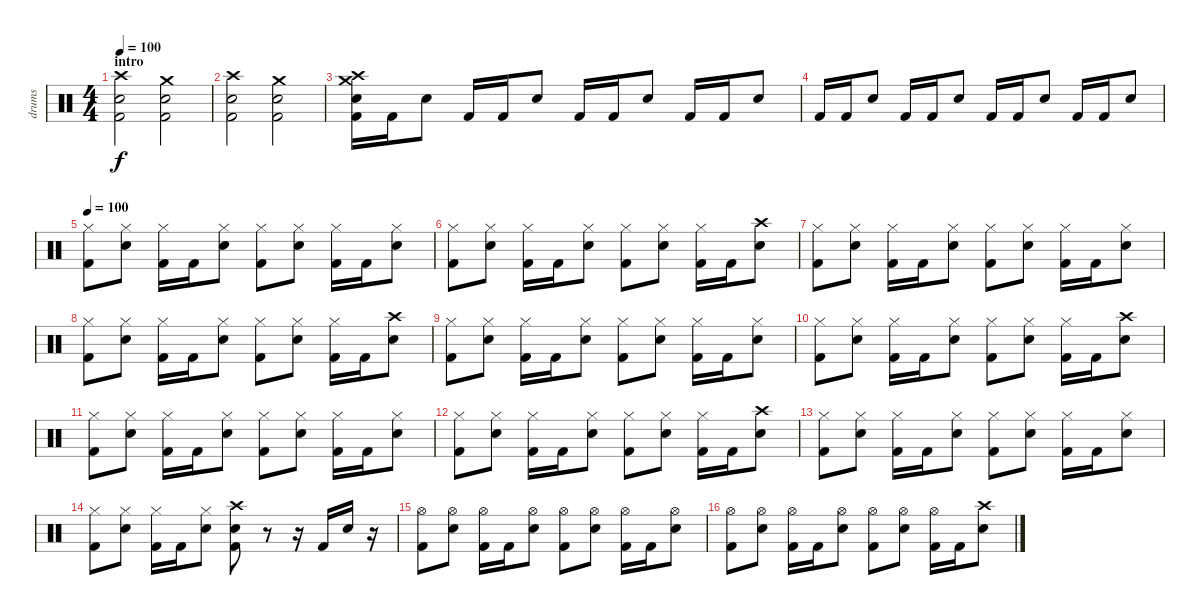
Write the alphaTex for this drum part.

\track ("drums" "drums") {instrument percussion}
\staff {score}
\articulation defaults
\ts (4 4)
\section ("" "intro")
\tempo 100
\tempo 120
\tempo 100
\clef neutral
\ks c
("Crash high (hit)" "Electric Snare (hit)" "Kick (hit) 2").2{dy f} ("Crash medium (hit)" "Electric Snare (hit)" "Kick (hit) 2").2 |
("Crash high (hit)" "Electric Snare (hit)" "Kick (hit) 2").2 ("Crash medium (hit)" "Electric Snare (hit)" "Kick (hit) 2").2 |
("Crash medium (hit)" "Crash high (hit)" "Electric Snare (hit)" "Kick (hit) 2").16 "Kick (hit) 2".16 "Electric Snare (hit)".8 "Kick (hit) 2".16 "Kick (hit) 2".16 "Electric Snare (hit)".8 "Kick (hit) 2".16 "Kick (hit) 2".16 "Electric Snare (hit)".8 "Kick (hit) 2".16 "Kick (hit) 2".16 "Electric Snare (hit)".8 |
"Kick (hit) 2".16 "Kick (hit) 2".16 "Electric Snare (hit)".8 "Kick (hit) 2".16 "Kick (hit) 2".16 "Electric Snare (hit)".8 "Kick (hit) 2".16 "Kick (hit) 2".16 "Electric Snare (hit)".8 "Kick (hit) 2".16 "Kick (hit) 2".16 "Electric Snare (hit)".8 |
\tempo 100
("Hi-Hat (closed)" "Kick (hit) 2").8 ("Hi-Hat (closed)" "Electric Snare (hit)").8 ("Hi-Hat (closed)" "Kick (hit) 2").16 "Kick (hit) 2".16 ("Hi-Hat (closed)" "Electric Snare (hit)").8 ("Hi-Hat (closed)" "Kick (hit) 2").8 ("Hi-Hat (closed)" "Electric Snare (hit)").8 ("Hi-Hat (closed)" "Kick (hit) 2").16 "Kick (hit) 2".16 ("Hi-Hat (closed)" "Electric Snare (hit)").8 |
("Hi-Hat (closed)" "Kick (hit) 2").8 ("Hi-Hat (closed)" "Electric Snare (hit)").8 ("Hi-Hat (closed)" "Kick (hit) 2").16 "Kick (hit) 2".16 ("Hi-Hat (closed)" "Electric Snare (hit)").8 ("Hi-Hat (closed)" "Kick (hit) 2").8 ("Hi-Hat (closed)" "Electric Snare (hit)").8 ("Hi-Hat (closed)" "Kick (hit) 2").16 "Kick (hit) 2".16 ("Crash high (hit)" "Electric Snare (hit)").8 |
("Hi-Hat (closed)" "Kick (hit) 2").8 ("Hi-Hat (closed)" "Electric Snare (hit)").8 ("Hi-Hat (closed)" "Kick (hit) 2").16 "Kick (hit) 2".16 ("Hi-Hat (closed)" "Electric Snare (hit)").8 ("Hi-Hat (closed)" "Kick (hit) 2").8 ("Hi-Hat (closed)" "Electric Snare (hit)").8 ("Hi-Hat (closed)" "Kick (hit) 2").16 "Kick (hit) 2".16 ("Hi-Hat (closed)" "Electric Snare (hit)").8 |
("Hi-Hat (closed)" "Kick (hit) 2").8 ("Hi-Hat (closed)" "Electric Snare (hit)").8 ("Hi-Hat (closed)" "Kick (hit) 2").16 "Kick (hit) 2".16 ("Hi-Hat (closed)" "Electric Snare (hit)").8 ("Hi-Hat (closed)" "Kick (hit) 2").8 ("Hi-Hat (closed)" "Electric Snare (hit)").8 ("Hi-Hat (closed)" "Kick (hit) 2").16 "Kick (hit) 2".16 ("Crash high (hit)" "Electric Snare (hit)").8 |
("Hi-Hat (closed)" "Kick (hit) 2").8 ("Hi-Hat (closed)" "Electric Snare (hit)").8 ("Hi-Hat (closed)" "Kick (hit) 2").16 "Kick (hit) 2".16 ("Hi-Hat (closed)" "Electric Snare (hit)").8 ("Hi-Hat (closed)" "Kick (hit) 2").8 ("Hi-Hat (closed)" "Electric Snare (hit)").8 ("Hi-Hat (closed)" "Kick (hit) 2").16 "Kick (hit) 2".16 ("Hi-Hat (closed)" "Electric Snare (hit)").8 |
("Hi-Hat (closed)" "Kick (hit) 2").8 ("Hi-Hat (closed)" "Electric Snare (hit)").8 ("Hi-Hat (closed)" "Kick (hit) 2").16 "Kick (hit) 2".16 ("Hi-Hat (closed)" "Electric Snare (hit)").8 ("Hi-Hat (closed)" "Kick (hit) 2").8 ("Hi-Hat (closed)" "Electric Snare (hit)").8 ("Hi-Hat (closed)" "Kick (hit) 2").16 "Kick (hit) 2".16 ("Crash high (hit)" "Electric Snare (hit)").8 |
("Hi-Hat (closed)" "Kick (hit) 2").8 ("Hi-Hat (closed)" "Electric Snare (hit)").8 ("Hi-Hat (closed)" "Kick (hit) 2").16 "Kick (hit) 2".16 ("Hi-Hat (closed)" "Electric Snare (hit)").8 ("Hi-Hat (closed)" "Kick (hit) 2").8 ("Hi-Hat (closed)" "Electric Snare (hit)").8 ("Hi-Hat (closed)" "Kick (hit) 2").16 "Kick (hit) 2".16 ("Hi-Hat (closed)" "Electric Snare (hit)").8 |
("Hi-Hat (closed)" "Kick (hit) 2").8 ("Hi-Hat (closed)" "Electric Snare (hit)").8 ("Hi-Hat (closed)" "Kick (hit) 2").16 "Kick (hit) 2".16 ("Hi-Hat (closed)" "Electric Snare (hit)").8 ("Hi-Hat (closed)" "Kick (hit) 2").8 ("Hi-Hat (closed)" "Electric Snare (hit)").8 ("Hi-Hat (closed)" "Kick (hit) 2").16 "Kick (hit) 2".16 ("Crash high (hit)" "Electric Snare (hit)").8 |
("Hi-Hat (closed)" "Kick (hit) 2").8 ("Hi-Hat (closed)" "Electric Snare (hit)").8 ("Hi-Hat (closed)" "Kick (hit) 2").16 "Kick (hit) 2".16 ("Hi-Hat (closed)" "Electric Snare (hit)").8 ("Hi-Hat (closed)" "Kick (hit) 2").8 ("Hi-Hat (closed)" "Electric Snare (hit)").8 ("Hi-Hat (closed)" "Kick (hit) 2").16 "Kick (hit) 2".16 ("Hi-Hat (closed)" "Electric Snare (hit)").8 |
("Hi-Hat (closed)" "Kick (hit) 2").8 ("Hi-Hat (closed)" "Electric Snare (hit)").8 ("Hi-Hat (closed)" "Kick (hit) 2").16 "Kick (hit) 2".16 ("Hi-Hat (closed)" "Electric Snare (hit)").8 ("Crash high (hit)" "Electric Snare (hit)" "Kick (hit) 2").8 r.8 r.16 "Kick (hit) 2".16 "Electric Snare (hit)".16 r.16 |
("Hi-Hat (open)" "Kick (hit) 2").8 ("Hi-Hat (open)" "Electric Snare (hit)").8 ("Hi-Hat (open)" "Kick (hit) 2").16 "Kick (hit) 2".16 ("Hi-Hat (open)" "Electric Snare (hit)").8 ("Hi-Hat (open)" "Kick (hit) 2").8 ("Hi-Hat (open)" "Electric Snare (hit)").8 ("Hi-Hat (open)" "Kick (hit) 2").16 "Kick (hit) 2".16 ("Hi-Hat (open)" "Electric Snare (hit)").8 |
("Hi-Hat (open)" "Kick (hit) 2").8 ("Hi-Hat (open)" "Electric Snare (hit)").8 ("Hi-Hat (open)" "Kick (hit) 2").16 "Kick (hit) 2".16 ("Hi-Hat (open)" "Electric Snare (hit)").8 ("Hi-Hat (open)" "Kick (hit) 2").8 ("Hi-Hat (open)" "Electric Snare (hit)").8 ("Hi-Hat (open)" "Kick (hit) 2").16 "Kick (hit) 2".16 ("Crash high (hit)" "Electric Snare (hit)").8
